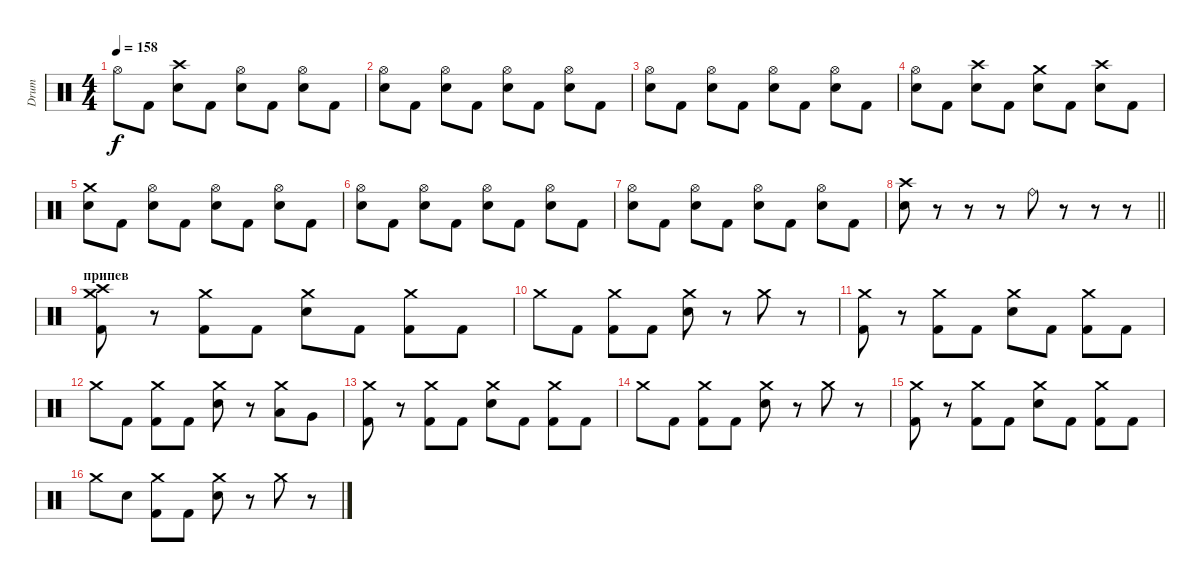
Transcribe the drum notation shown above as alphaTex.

\track ("Drum" "Drum") {instrument percussion}
\staff {score}
\articulation defaults
\ts (4 4)
\section ("" "")
\tempo 158
\clef neutral
\ks c "Hi-Hat (open)".8{dy f} "Kick (hit) 2".8
("Crash high (hit)" "Electric Snare (hit)").8 "Kick (hit) 2".8 ("Hi-Hat (open)" "Electric Snare (hit)").8 "Kick (hit) 2".8 ("Hi-Hat (open)" "Electric Snare (hit)").8 "Kick (hit) 2".8 |
("Hi-Hat (open)" "Electric Snare (hit)").8 "Kick (hit) 2".8 ("Hi-Hat (open)" "Electric Snare (hit)").8 "Kick (hit) 2".8 ("Hi-Hat (open)" "Electric Snare (hit)").8 "Kick (hit) 2".8 ("Hi-Hat (open)" "Electric Snare (hit)").8 "Kick (hit) 2".8 |
("Hi-Hat (open)" "Electric Snare (hit)").8 "Kick (hit) 2".8 ("Hi-Hat (open)" "Electric Snare (hit)").8 "Kick (hit) 2".8 ("Hi-Hat (open)" "Electric Snare (hit)").8 "Kick (hit) 2".8 ("Hi-Hat (open)" "Electric Snare (hit)").8 "Kick (hit) 2".8 |
("Hi-Hat (open)" "Electric Snare (hit)").8 "Kick (hit) 2".8 ("Crash high (hit)" "Electric Snare (hit)").8 "Kick (hit) 2".8 ("Crash medium (hit)" "Electric Snare (hit)").8 "Kick (hit) 2".8 ("Crash high (hit)" "Electric Snare (hit)").8 "Kick (hit) 2".8 |
("Crash medium (hit)" "Electric Snare (hit)").8 "Kick (hit) 2".8 ("Hi-Hat (open)" "Electric Snare (hit)").8 "Kick (hit) 2".8 ("Hi-Hat (open)" "Electric Snare (hit)").8 "Kick (hit) 2".8 ("Hi-Hat (open)" "Electric Snare (hit)").8 "Kick (hit) 2".8 |
("Hi-Hat (open)" "Electric Snare (hit)").8 "Kick (hit) 2".8 ("Hi-Hat (open)" "Electric Snare (hit)").8 "Kick (hit) 2".8 ("Hi-Hat (open)" "Electric Snare (hit)").8 "Kick (hit) 2".8 ("Hi-Hat (open)" "Electric Snare (hit)").8 "Kick (hit) 2".8 |
("Hi-Hat (open)" "Electric Snare (hit)").8 "Kick (hit) 2".8 ("Hi-Hat (open)" "Electric Snare (hit)").8 "Kick (hit) 2".8 ("Hi-Hat (open)" "Electric Snare (hit)").8 "Kick (hit) 2".8 ("Hi-Hat (open)" "Electric Snare (hit)").8 "Kick (hit) 2".8 |
\barLineRight lightlight
("Crash high (hit)" "Electric Snare (hit)").8 r.8 r.8 r.8 "Ride (bell)".8 r.8 r.8 r.8 |
\section ("" "припев")
("Crash medium (hit)" "Crash high (hit)" "Kick (hit) 2").8 r.8 ("Crash medium (hit)" "Kick (hit) 2").8 "Kick (hit) 2".8 ("Crash medium (hit)" "Electric Snare (hit)").8 "Kick (hit) 2".8 ("Crash medium (hit)" "Kick (hit) 2").8 "Kick (hit) 2".8 |
"Crash medium (hit)".8 "Kick (hit) 2".8 ("Crash medium (hit)" "Kick (hit) 2").8 "Kick (hit) 2".8 ("Crash medium (hit)" "Electric Snare (hit)").8 r.8 "Crash medium (hit)".8 r.8 |
("Crash medium (hit)" "Kick (hit) 2").8 r.8 ("Crash medium (hit)" "Kick (hit) 2").8 "Kick (hit) 2".8 ("Crash medium (hit)" "Electric Snare (hit)").8 "Kick (hit) 2".8 ("Crash medium (hit)" "Kick (hit) 2").8 "Kick (hit) 2".8 |
"Crash medium (hit)".8 "Kick (hit) 2".8 ("Crash medium (hit)" "Kick (hit) 2").8 "Kick (hit) 2".8 ("Crash medium (hit)" "Electric Snare (hit)").8 r.8 ("Crash medium (hit)" "Low Tom (hit)").8 "Very Low Tom (hit)".8 |
("Crash medium (hit)" "Kick (hit) 2").8 r.8 ("Crash medium (hit)" "Kick (hit) 2").8 "Kick (hit) 2".8 ("Crash medium (hit)" "Electric Snare (hit)").8 "Kick (hit) 2".8 ("Crash medium (hit)" "Kick (hit) 2").8 "Kick (hit) 2".8 |
"Crash medium (hit)".8 "Kick (hit) 2".8 ("Crash medium (hit)" "Kick (hit) 2").8 "Kick (hit) 2".8 ("Crash medium (hit)" "Electric Snare (hit)").8 r.8 "Crash medium (hit)".8 r.8 |
("Crash medium (hit)" "Kick (hit) 2").8 r.8 ("Crash medium (hit)" "Kick (hit) 2").8 "Kick (hit) 2".8 ("Crash medium (hit)" "Electric Snare (hit)").8 "Kick (hit) 2".8 ("Crash medium (hit)" "Kick (hit) 2").8 "Kick (hit) 2".8 |
"Crash medium (hit)".8 "Electric Snare (hit)".8 ("Crash medium (hit)" "Kick (hit) 2").8 "Kick (hit) 2".8 ("Crash medium (hit)" "Electric Snare (hit)").8 r.8 "Crash medium (hit)".8 r.8
